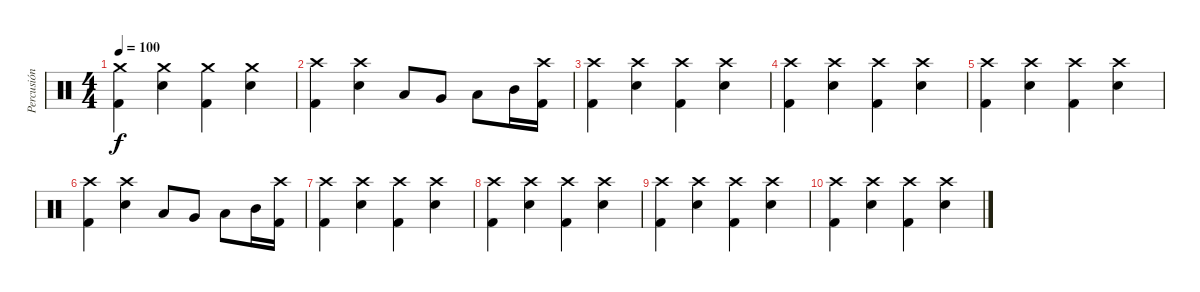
\track ("Percusión" "Percusión") {instrument percussion}
\staff {score}
\articulation defaults
\ts (4 4)
\tempo 100
\clef neutral
\ks c
("Kick (hit) 2" "Crash medium (hit)").4{dy f} ("Electric Snare (hit)" "Crash medium (hit)").4 ("Kick (hit) 2" "Crash medium (hit)").4 ("Electric Snare (hit)" "Crash medium (hit)").4 |
("Kick (hit) 2" "Crash high (hit)").4 ("Electric Snare (hit)" "Crash high (hit)").4 "Low Floor Tom (hit)".8 "Very Low Tom (hit)".8 "Low Tom (hit)".8 "Mid Tom (hit)".16 ("Crash high (hit)" "Kick (hit) 2").16 |
("Kick (hit) 2" "Crash high (hit)").4 ("Electric Snare (hit)" "Crash high (hit)").4 ("Kick (hit) 2" "Crash high (hit)").4 ("Electric Snare (hit)" "Crash high (hit)").4 |
("Kick (hit) 2" "Crash high (hit)").4 ("Electric Snare (hit)" "Crash high (hit)").4 ("Kick (hit) 2" "Crash high (hit)").4 ("Electric Snare (hit)" "Crash high (hit)").4 |
("Kick (hit) 2" "Crash high (hit)").4 ("Electric Snare (hit)" "Crash high (hit)").4 ("Kick (hit) 2" "Crash high (hit)").4 ("Electric Snare (hit)" "Crash high (hit)").4 |
("Kick (hit) 2" "Crash high (hit)").4 ("Electric Snare (hit)" "Crash high (hit)").4 "Low Floor Tom (hit)".8 "Very Low Tom (hit)".8 "Low Tom (hit)".8 "Mid Tom (hit)".16 ("Crash high (hit)" "Kick (hit) 2").16 |
("Kick (hit) 2" "Crash high (hit)").4 ("Electric Snare (hit)" "Crash high (hit)").4 ("Kick (hit) 2" "Crash high (hit)").4 ("Electric Snare (hit)" "Crash high (hit)").4 |
("Kick (hit) 2" "Crash high (hit)").4 ("Electric Snare (hit)" "Crash high (hit)").4 ("Kick (hit) 2" "Crash high (hit)").4 ("Electric Snare (hit)" "Crash high (hit)").4 |
("Kick (hit) 2" "Crash high (hit)").4 ("Electric Snare (hit)" "Crash high (hit)").4 ("Kick (hit) 2" "Crash high (hit)").4 ("Electric Snare (hit)" "Crash high (hit)").4 |
("Kick (hit) 2" "Crash high (hit)").4 ("Electric Snare (hit)" "Crash high (hit)").4 ("Kick (hit) 2" "Crash high (hit)").4 ("Electric Snare (hit)" "Crash high (hit)").4
